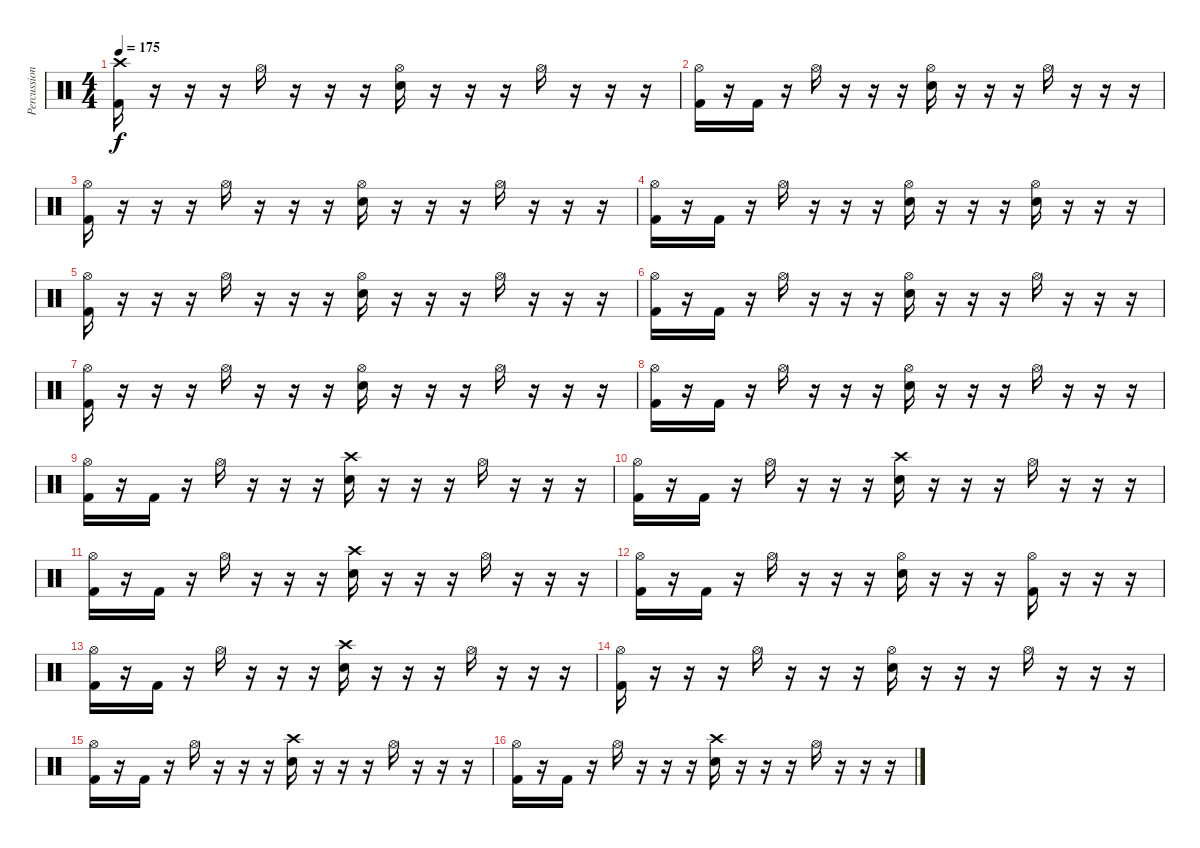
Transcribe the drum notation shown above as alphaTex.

\track ("Percussion" "Percussion") {instrument percussion}
\staff {score}
\articulation defaults
\ts (4 4)
\tempo 175
\clef neutral
\ks c
("Crash high (hit)" "Kick (hit) 2").16{dy f} r.16 r.16 r.16 "Hi-Hat (open)".16 r.16 r.16 r.16 ("Hi-Hat (open)" "Snare (hit) 2").16 r.16 r.16 r.16 "Hi-Hat (open)".16 r.16 r.16 r.16 |
("Hi-Hat (open)" "Kick (hit) 2").16 r.16 "Kick (hit) 2".16 r.16 "Hi-Hat (open)".16 r.16 r.16 r.16 ("Hi-Hat (open)" "Snare (hit) 2").16 r.16 r.16 r.16 "Hi-Hat (open)".16 r.16 r.16 r.16 |
("Hi-Hat (open)" "Kick (hit) 2").16 r.16 r.16 r.16 "Hi-Hat (open)".16 r.16 r.16 r.16 ("Hi-Hat (open)" "Snare (hit) 2").16 r.16 r.16 r.16 "Hi-Hat (open)".16 r.16 r.16 r.16 |
("Hi-Hat (open)" "Kick (hit) 2").16 r.16 "Kick (hit) 2".16 r.16 "Hi-Hat (open)".16 r.16 r.16 r.16 ("Hi-Hat (open)" "Snare (hit) 2").16 r.16 r.16 r.16 ("Hi-Hat (open)" "Snare (hit) 2").16 r.16 r.16 r.16 |
("Hi-Hat (open)" "Kick (hit) 2").16 r.16 r.16 r.16 "Hi-Hat (open)".16 r.16 r.16 r.16 ("Hi-Hat (open)" "Snare (hit) 2").16 r.16 r.16 r.16 "Hi-Hat (open)".16 r.16 r.16 r.16 |
("Hi-Hat (open)" "Kick (hit) 2").16 r.16 "Kick (hit) 2".16 r.16 "Hi-Hat (open)".16 r.16 r.16 r.16 ("Hi-Hat (open)" "Snare (hit) 2").16 r.16 r.16 r.16 "Hi-Hat (open)".16 r.16 r.16 r.16 |
("Hi-Hat (open)" "Kick (hit) 2").16 r.16 r.16 r.16 "Hi-Hat (open)".16 r.16 r.16 r.16 ("Hi-Hat (open)" "Snare (hit) 2").16 r.16 r.16 r.16 "Hi-Hat (open)".16 r.16 r.16 r.16 |
("Hi-Hat (open)" "Kick (hit) 2").16 r.16 "Kick (hit) 2".16 r.16 "Hi-Hat (open)".16 r.16 r.16 r.16 ("Hi-Hat (open)" "Snare (hit) 2").16 r.16 r.16 r.16 "Hi-Hat (open)".16 r.16 r.16 r.16 |
("Hi-Hat (open)" "Kick (hit) 2").16 r.16 "Kick (hit) 2".16 r.16 "Hi-Hat (open)".16 r.16 r.16 r.16 ("Crash high (hit)" "Snare (hit) 2").16 r.16 r.16 r.16 "Hi-Hat (open)".16 r.16 r.16 r.16 |
("Hi-Hat (open)" "Kick (hit) 2").16 r.16 "Kick (hit) 2".16 r.16 "Hi-Hat (open)".16 r.16 r.16 r.16 ("Crash high (hit)" "Snare (hit) 2").16 r.16 r.16 r.16 "Hi-Hat (open)".16 r.16 r.16 r.16 |
("Hi-Hat (open)" "Kick (hit) 2").16 r.16 "Kick (hit) 2".16 r.16 "Hi-Hat (open)".16 r.16 r.16 r.16 ("Crash high (hit)" "Snare (hit) 2").16 r.16 r.16 r.16 "Hi-Hat (open)".16 r.16 r.16 r.16 |
("Hi-Hat (open)" "Kick (hit) 2").16 r.16 "Kick (hit) 2".16 r.16 "Hi-Hat (open)".16 r.16 r.16 r.16 ("Hi-Hat (open)" "Snare (hit) 2").16 r.16 r.16 r.16 ("Hi-Hat (open)" "Kick (hit) 2").16 r.16 r.16 r.16 |
("Hi-Hat (open)" "Kick (hit) 2").16 r.16 "Kick (hit) 2".16 r.16 "Hi-Hat (open)".16 r.16 r.16 r.16 ("Crash high (hit)" "Snare (hit) 2").16 r.16 r.16 r.16 "Hi-Hat (open)".16 r.16 r.16 r.16 |
("Hi-Hat (open)" "Kick (hit) 2").16 r.16 r.16 r.16 "Hi-Hat (open)".16 r.16 r.16 r.16 ("Hi-Hat (open)" "Snare (hit) 2").16 r.16 r.16 r.16 "Hi-Hat (open)".16 r.16 r.16 r.16 |
("Hi-Hat (open)" "Kick (hit) 2").16 r.16 "Kick (hit) 2".16 r.16 "Hi-Hat (open)".16 r.16 r.16 r.16 ("Crash high (hit)" "Snare (hit) 2").16 r.16 r.16 r.16 "Hi-Hat (open)".16 r.16 r.16 r.16 |
("Hi-Hat (open)" "Kick (hit) 2").16 r.16 "Kick (hit) 2".16 r.16 "Hi-Hat (open)".16 r.16 r.16 r.16 ("Crash high (hit)" "Snare (hit) 2").16 r.16 r.16 r.16 "Hi-Hat (open)".16 r.16 r.16 r.16
